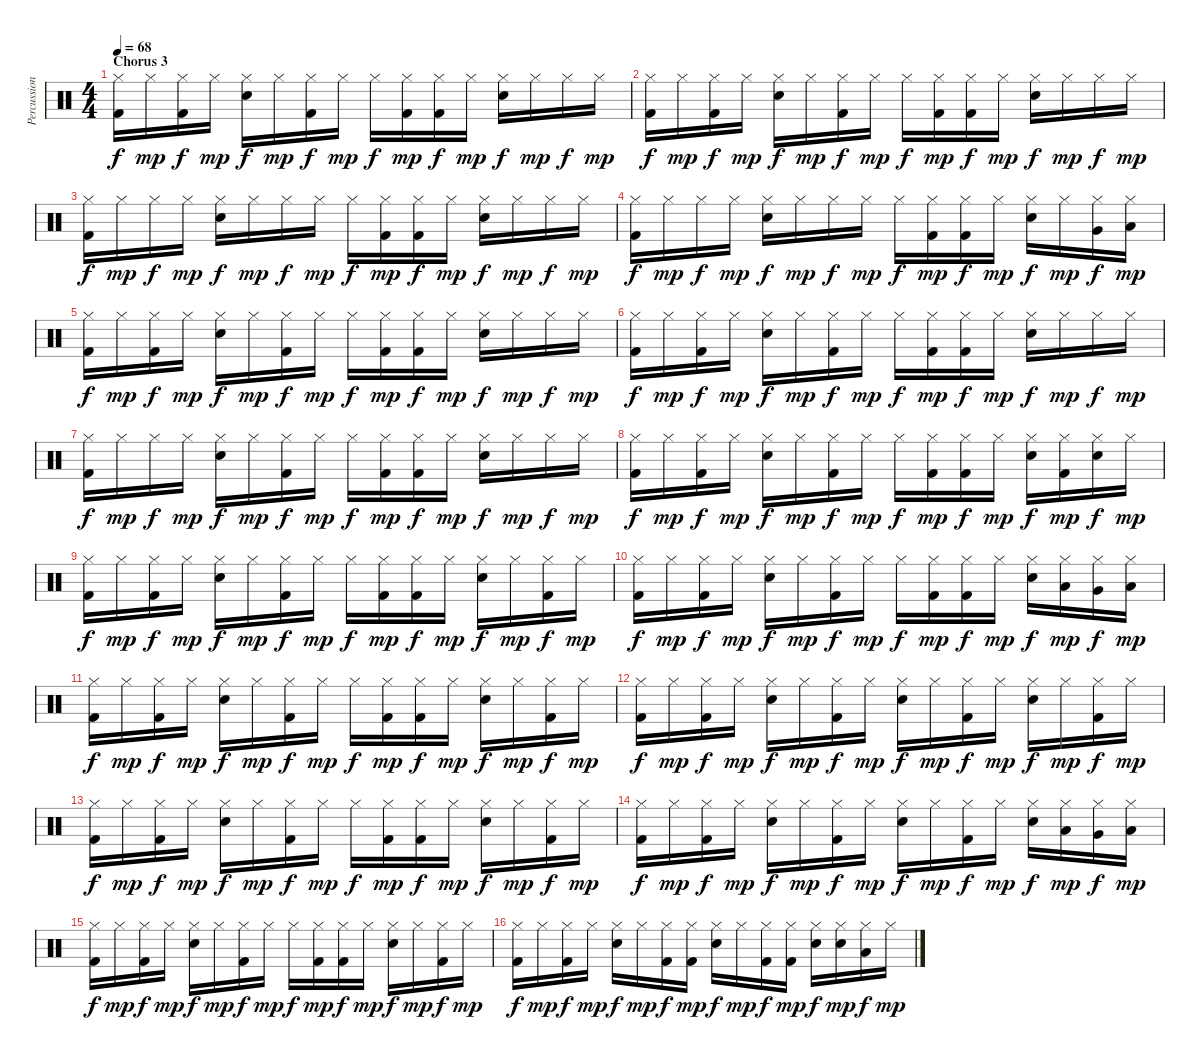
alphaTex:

\track ("Percussion" "Percussion") {instrument percussion}
\staff {score}
\articulation defaults
\ts (4 4)
\section ("" "Chorus 3")
\tempo 68
\clef neutral
\ks c
("Hi-Hat (closed)" "Kick (hit) 2").16{dy f volume 12} "Hi-Hat (closed)".16{dy mp} ("Hi-Hat (closed)" "Kick (hit) 2").16{dy f} "Hi-Hat (closed)".16{dy mp} ("Hi-Hat (closed)" "Snare (hit) 2").16{dy f} "Hi-Hat (closed)".16{dy mp} ("Hi-Hat (closed)" "Kick (hit) 2").16{dy f} "Hi-Hat (closed)".16{dy mp} "Hi-Hat (closed)".16{dy f} ("Hi-Hat (closed)" "Kick (hit) 2").16{dy mp} ("Hi-Hat (closed)" "Kick (hit) 2").16{dy f} "Hi-Hat (closed)".16{dy mp} ("Hi-Hat (closed)" "Snare (hit) 2").16{dy f} "Hi-Hat (closed)".16{dy mp} "Hi-Hat (closed)".16{dy f} "Hi-Hat (closed)".16{dy mp} |
("Hi-Hat (closed)" "Kick (hit) 2").16{dy f} "Hi-Hat (closed)".16{dy mp} ("Hi-Hat (closed)" "Kick (hit) 2").16{dy f} "Hi-Hat (closed)".16{dy mp} ("Hi-Hat (closed)" "Snare (hit) 2").16{dy f} "Hi-Hat (closed)".16{dy mp} ("Hi-Hat (closed)" "Kick (hit) 2").16{dy f} "Hi-Hat (closed)".16{dy mp} "Hi-Hat (closed)".16{dy f} ("Hi-Hat (closed)" "Kick (hit) 2").16{dy mp} ("Hi-Hat (closed)" "Kick (hit) 2").16{dy f} "Hi-Hat (closed)".16{dy mp} ("Hi-Hat (closed)" "Snare (hit) 2").16{dy f} "Hi-Hat (closed)".16{dy mp} "Hi-Hat (closed)".16{dy f} "Hi-Hat (closed)".16{dy mp} |
("Hi-Hat (closed)" "Kick (hit) 2").16{dy f} "Hi-Hat (closed)".16{dy mp} "Hi-Hat (closed)".16{dy f} "Hi-Hat (closed)".16{dy mp} ("Hi-Hat (closed)" "Snare (hit) 2").16{dy f} "Hi-Hat (closed)".16{dy mp} "Hi-Hat (closed)".16{dy f} "Hi-Hat (closed)".16{dy mp} "Hi-Hat (closed)".16{dy f} ("Hi-Hat (closed)" "Kick (hit) 2").16{dy mp} ("Hi-Hat (closed)" "Kick (hit) 2").16{dy f} "Hi-Hat (closed)".16{dy mp} ("Hi-Hat (closed)" "Snare (hit) 2").16{dy f} "Hi-Hat (closed)".16{dy mp} "Hi-Hat (closed)".16{dy f} "Hi-Hat (closed)".16{dy mp} |
("Hi-Hat (closed)" "Kick (hit) 2").16{dy f} "Hi-Hat (closed)".16{dy mp} "Hi-Hat (closed)".16{dy f} "Hi-Hat (closed)".16{dy mp} ("Hi-Hat (closed)" "Snare (hit) 2").16{dy f} "Hi-Hat (closed)".16{dy mp} "Hi-Hat (closed)".16{dy f} "Hi-Hat (closed)".16{dy mp} "Hi-Hat (closed)".16{dy f} ("Hi-Hat (closed)" "Kick (hit) 2").16{dy mp} ("Hi-Hat (closed)" "Kick (hit) 2").16{dy f} "Hi-Hat (closed)".16{dy mp} ("Hi-Hat (closed)" "Snare (hit) 2").16{dy f} "Hi-Hat (closed)".16{dy mp} ("Hi-Hat (closed)" "Very Low Tom (hit)").16{dy f} ("Hi-Hat (closed)" "Low Floor Tom (hit)").16{dy mp} |
("Hi-Hat (closed)" "Kick (hit) 2").16{dy f} "Hi-Hat (closed)".16{dy mp} ("Hi-Hat (closed)" "Kick (hit) 2").16{dy f} "Hi-Hat (closed)".16{dy mp} ("Hi-Hat (closed)" "Snare (hit) 2").16{dy f} "Hi-Hat (closed)".16{dy mp} ("Hi-Hat (closed)" "Kick (hit) 2").16{dy f} "Hi-Hat (closed)".16{dy mp} "Hi-Hat (closed)".16{dy f} ("Hi-Hat (closed)" "Kick (hit) 2").16{dy mp} ("Hi-Hat (closed)" "Kick (hit) 2").16{dy f} "Hi-Hat (closed)".16{dy mp} ("Hi-Hat (closed)" "Snare (hit) 2").16{dy f} "Hi-Hat (closed)".16{dy mp} "Hi-Hat (closed)".16{dy f} "Hi-Hat (closed)".16{dy mp} |
("Hi-Hat (closed)" "Kick (hit) 2").16{dy f} "Hi-Hat (closed)".16{dy mp} ("Hi-Hat (closed)" "Kick (hit) 2").16{dy f} "Hi-Hat (closed)".16{dy mp} ("Hi-Hat (closed)" "Snare (hit) 2").16{dy f} "Hi-Hat (closed)".16{dy mp} ("Hi-Hat (closed)" "Kick (hit) 2").16{dy f} "Hi-Hat (closed)".16{dy mp} "Hi-Hat (closed)".16{dy f} ("Hi-Hat (closed)" "Kick (hit) 2").16{dy mp} ("Hi-Hat (closed)" "Kick (hit) 2").16{dy f} "Hi-Hat (closed)".16{dy mp} ("Hi-Hat (closed)" "Snare (hit) 2").16{dy f} "Hi-Hat (closed)".16{dy mp} "Hi-Hat (closed)".16{dy f} "Hi-Hat (closed)".16{dy mp} |
("Hi-Hat (closed)" "Kick (hit) 2").16{dy f} "Hi-Hat (closed)".16{dy mp} "Hi-Hat (closed)".16{dy f} "Hi-Hat (closed)".16{dy mp} ("Hi-Hat (closed)" "Snare (hit) 2").16{dy f} "Hi-Hat (closed)".16{dy mp} ("Hi-Hat (closed)" "Kick (hit) 2").16{dy f} "Hi-Hat (closed)".16{dy mp} "Hi-Hat (closed)".16{dy f} ("Hi-Hat (closed)" "Kick (hit) 2").16{dy mp} ("Hi-Hat (closed)" "Kick (hit) 2").16{dy f} "Hi-Hat (closed)".16{dy mp} ("Hi-Hat (closed)" "Snare (hit) 2").16{dy f} "Hi-Hat (closed)".16{dy mp} "Hi-Hat (closed)".16{dy f} "Hi-Hat (closed)".16{dy mp} |
("Hi-Hat (closed)" "Kick (hit) 2").16{dy f} "Hi-Hat (closed)".16{dy mp} ("Hi-Hat (closed)" "Kick (hit) 2").16{dy f} "Hi-Hat (closed)".16{dy mp} ("Hi-Hat (closed)" "Snare (hit) 2").16{dy f} "Hi-Hat (closed)".16{dy mp} ("Hi-Hat (closed)" "Kick (hit) 2").16{dy f} "Hi-Hat (closed)".16{dy mp} "Hi-Hat (closed)".16{dy f} ("Hi-Hat (closed)" "Kick (hit) 2").16{dy mp} ("Hi-Hat (closed)" "Kick (hit) 2").16{dy f} "Hi-Hat (closed)".16{dy mp} ("Hi-Hat (closed)" "Snare (hit) 2").16{dy f} ("Hi-Hat (closed)" "Kick (hit) 2").16{dy mp} ("Hi-Hat (closed)" "Snare (hit) 2").16{dy f} "Hi-Hat (closed)".16{dy mp} |
("Hi-Hat (closed)" "Kick (hit) 2").16{dy f} "Hi-Hat (closed)".16{dy mp} ("Hi-Hat (closed)" "Kick (hit) 2").16{dy f} "Hi-Hat (closed)".16{dy mp} ("Hi-Hat (closed)" "Snare (hit) 2").16{dy f} "Hi-Hat (closed)".16{dy mp} ("Hi-Hat (closed)" "Kick (hit) 2").16{dy f} "Hi-Hat (closed)".16{dy mp} "Hi-Hat (closed)".16{dy f} ("Hi-Hat (closed)" "Kick (hit) 2").16{dy mp} ("Hi-Hat (closed)" "Kick (hit) 2").16{dy f} "Hi-Hat (closed)".16{dy mp} ("Hi-Hat (closed)" "Snare (hit) 2").16{dy f} "Hi-Hat (closed)".16{dy mp} ("Hi-Hat (closed)" "Kick (hit) 2").16{dy f} "Hi-Hat (closed)".16{dy mp} |
("Hi-Hat (closed)" "Kick (hit) 2").16{dy f} "Hi-Hat (closed)".16{dy mp} ("Hi-Hat (closed)" "Kick (hit) 2").16{dy f} "Hi-Hat (closed)".16{dy mp} ("Hi-Hat (closed)" "Snare (hit) 2").16{dy f} "Hi-Hat (closed)".16{dy mp} ("Hi-Hat (closed)" "Kick (hit) 2").16{dy f} "Hi-Hat (closed)".16{dy mp} "Hi-Hat (closed)".16{dy f} ("Hi-Hat (closed)" "Kick (hit) 2").16{dy mp} ("Hi-Hat (closed)" "Kick (hit) 2").16{dy f} "Hi-Hat (closed)".16{dy mp} ("Hi-Hat (closed)" "Snare (hit) 2").16{dy f} ("Hi-Hat (closed)" "Low Tom (hit)").16{dy mp} ("Hi-Hat (closed)" "Very Low Tom (hit)").16{dy f} ("Hi-Hat (closed)" "Low Floor Tom (hit)").16{dy mp} |
("Hi-Hat (closed)" "Kick (hit) 2").16{dy f} "Hi-Hat (closed)".16{dy mp} ("Hi-Hat (closed)" "Kick (hit) 2").16{dy f} "Hi-Hat (closed)".16{dy mp} ("Hi-Hat (closed)" "Snare (hit) 2").16{dy f} "Hi-Hat (closed)".16{dy mp} ("Hi-Hat (closed)" "Kick (hit) 2").16{dy f} "Hi-Hat (closed)".16{dy mp} "Hi-Hat (closed)".16{dy f} ("Hi-Hat (closed)" "Kick (hit) 2").16{dy mp} ("Hi-Hat (closed)" "Kick (hit) 2").16{dy f} "Hi-Hat (closed)".16{dy mp} ("Hi-Hat (closed)" "Snare (hit) 2").16{dy f} "Hi-Hat (closed)".16{dy mp} ("Hi-Hat (closed)" "Kick (hit) 2").16{dy f} "Hi-Hat (closed)".16{dy mp} |
("Hi-Hat (closed)" "Kick (hit) 2").16{dy f} "Hi-Hat (closed)".16{dy mp} ("Hi-Hat (closed)" "Kick (hit) 2").16{dy f} "Hi-Hat (closed)".16{dy mp} ("Hi-Hat (closed)" "Snare (hit) 2").16{dy f} "Hi-Hat (closed)".16{dy mp} ("Hi-Hat (closed)" "Kick (hit) 2").16{dy f} "Hi-Hat (closed)".16{dy mp} ("Hi-Hat (closed)" "Snare (hit) 2").16{dy f} "Hi-Hat (closed)".16{dy mp} ("Hi-Hat (closed)" "Kick (hit) 2").16{dy f} "Hi-Hat (closed)".16{dy mp} ("Hi-Hat (closed)" "Snare (hit) 2").16{dy f} "Hi-Hat (closed)".16{dy mp} ("Hi-Hat (closed)" "Kick (hit) 2").16{dy f} "Hi-Hat (closed)".16{dy mp} |
("Hi-Hat (closed)" "Kick (hit) 2").16{dy f} "Hi-Hat (closed)".16{dy mp} ("Hi-Hat (closed)" "Kick (hit) 2").16{dy f} "Hi-Hat (closed)".16{dy mp} ("Hi-Hat (closed)" "Snare (hit) 2").16{dy f} "Hi-Hat (closed)".16{dy mp} ("Hi-Hat (closed)" "Kick (hit) 2").16{dy f} "Hi-Hat (closed)".16{dy mp} "Hi-Hat (closed)".16{dy f} ("Hi-Hat (closed)" "Kick (hit) 2").16{dy mp} ("Hi-Hat (closed)" "Kick (hit) 2").16{dy f} "Hi-Hat (closed)".16{dy mp} ("Hi-Hat (closed)" "Snare (hit) 2").16{dy f} "Hi-Hat (closed)".16{dy mp} ("Hi-Hat (closed)" "Kick (hit) 2").16{dy f} "Hi-Hat (closed)".16{dy mp} |
("Hi-Hat (closed)" "Kick (hit) 2").16{dy f} "Hi-Hat (closed)".16{dy mp} ("Hi-Hat (closed)" "Kick (hit) 2").16{dy f} "Hi-Hat (closed)".16{dy mp} ("Hi-Hat (closed)" "Snare (hit) 2").16{dy f} "Hi-Hat (closed)".16{dy mp} ("Hi-Hat (closed)" "Kick (hit) 2").16{dy f} "Hi-Hat (closed)".16{dy mp} ("Hi-Hat (closed)" "Snare (hit) 2").16{dy f} "Hi-Hat (closed)".16{dy mp} ("Hi-Hat (closed)" "Kick (hit) 2").16{dy f} "Hi-Hat (closed)".16{dy mp} ("Hi-Hat (closed)" "Snare (hit) 2").16{dy f} ("Hi-Hat (closed)" "Low Tom (hit)").16{dy mp} ("Hi-Hat (closed)" "Very Low Tom (hit)").16{dy f} ("Hi-Hat (closed)" "Low Floor Tom (hit)").16{dy mp} |
("Hi-Hat (closed)" "Kick (hit) 2").16{dy f} "Hi-Hat (closed)".16{dy mp} ("Hi-Hat (closed)" "Kick (hit) 2").16{dy f} "Hi-Hat (closed)".16{dy mp} ("Hi-Hat (closed)" "Snare (hit) 2").16{dy f} "Hi-Hat (closed)".16{dy mp} ("Hi-Hat (closed)" "Kick (hit) 2").16{dy f} "Hi-Hat (closed)".16{dy mp} "Hi-Hat (closed)".16{dy f} ("Hi-Hat (closed)" "Kick (hit) 2").16{dy mp} ("Hi-Hat (closed)" "Kick (hit) 2").16{dy f} "Hi-Hat (closed)".16{dy mp} ("Hi-Hat (closed)" "Snare (hit) 2").16{dy f} "Hi-Hat (closed)".16{dy mp} ("Hi-Hat (closed)" "Kick (hit) 2").16{dy f} "Hi-Hat (closed)".16{dy mp} |
("Hi-Hat (closed)" "Kick (hit) 2").16{dy f} "Hi-Hat (closed)".16{dy mp} ("Hi-Hat (closed)" "Kick (hit) 2").16{dy f} "Hi-Hat (closed)".16{dy mp} ("Hi-Hat (closed)" "Snare (hit) 2").16{dy f} "Hi-Hat (closed)".16{dy mp} ("Hi-Hat (closed)" "Kick (hit) 2").16{dy f} ("Hi-Hat (closed)" "Kick (hit) 2").16{dy mp} ("Hi-Hat (closed)" "Snare (hit) 2").16{dy f} "Hi-Hat (closed)".16{dy mp} ("Hi-Hat (closed)" "Kick (hit) 2").16{dy f} ("Hi-Hat (closed)" "Kick (hit) 2").16{dy mp} ("Hi-Hat (closed)" "Snare (hit) 2").16{dy f} ("Hi-Hat (closed)" "Snare (hit) 2").16{dy mp} ("Hi-Hat (closed)" "Low Floor Tom (hit)").16{dy f} "Hi-Hat (closed)".16{dy mp}
